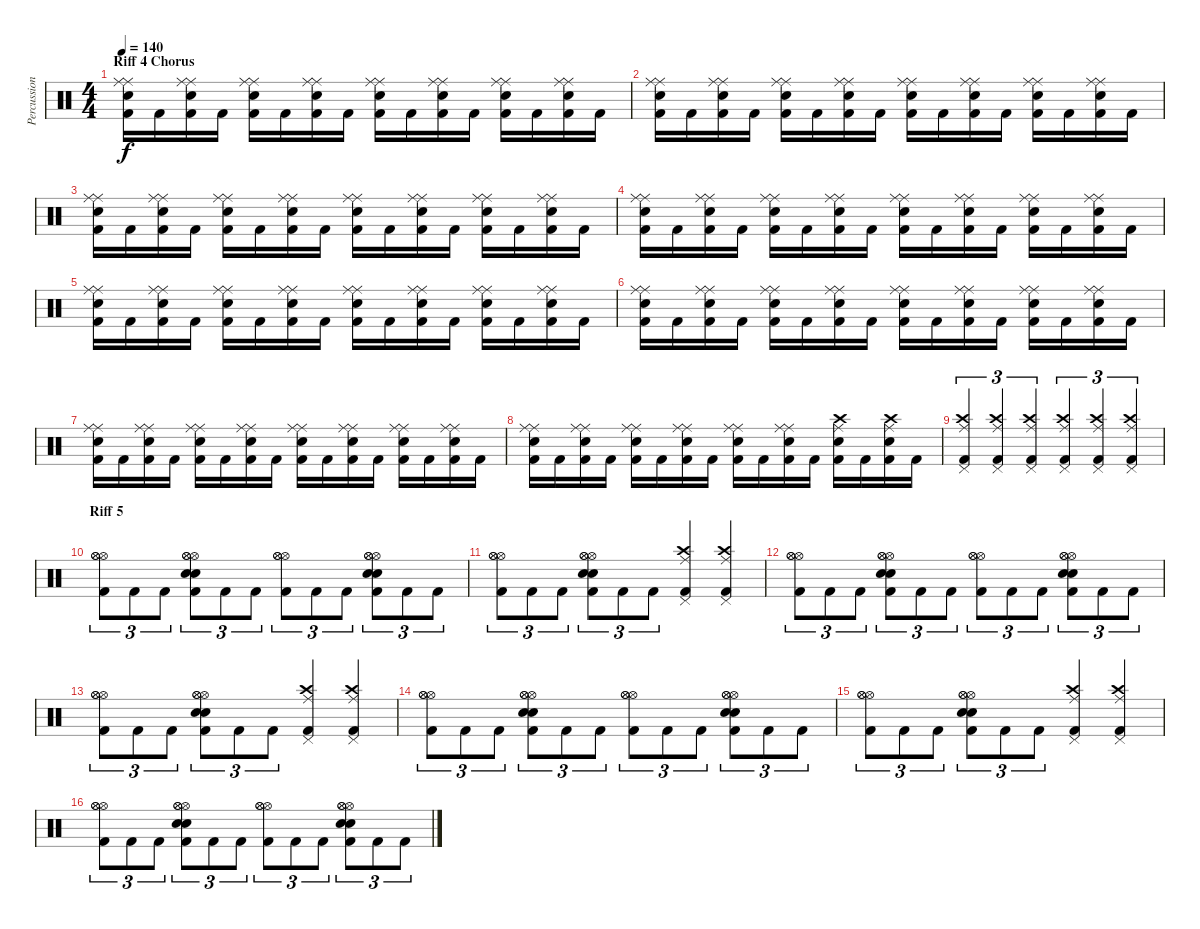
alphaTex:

\track ("Percussion" "Percussion") {instrument percussion}
\staff {score}
\articulation defaults
\ts (4 4)
\section ("" "Riff 4 Chorus")
\tempo 140
\clef neutral
\ks c
("Ride (middle)" "Ride (middle)" "Electric Snare (hit)" "Kick (hit) 2").16{dy f} "Kick (hit) 2".16 ("Ride (middle)" "Ride (middle)" "Electric Snare (hit)" "Kick (hit) 2").16 "Kick (hit) 2".16 ("Ride (middle)" "Ride (middle)" "Electric Snare (hit)" "Kick (hit) 2").16 "Kick (hit) 2".16 ("Ride (middle)" "Ride (middle)" "Electric Snare (hit)" "Kick (hit) 2").16 "Kick (hit) 2".16 ("Ride (middle)" "Ride (middle)" "Electric Snare (hit)" "Kick (hit) 2").16 "Kick (hit) 2".16 ("Ride (middle)" "Ride (middle)" "Electric Snare (hit)" "Kick (hit) 2").16 "Kick (hit) 2".16 ("Ride (middle)" "Ride (middle)" "Electric Snare (hit)" "Kick (hit) 2").16 "Kick (hit) 2".16 ("Ride (middle)" "Ride (middle)" "Electric Snare (hit)" "Kick (hit) 2").16 "Kick (hit) 2".16 |
("Ride (middle)" "Ride (middle)" "Electric Snare (hit)" "Kick (hit) 2").16 "Kick (hit) 2".16 ("Ride (middle)" "Ride (middle)" "Electric Snare (hit)" "Kick (hit) 2").16 "Kick (hit) 2".16 ("Ride (middle)" "Ride (middle)" "Electric Snare (hit)" "Kick (hit) 2").16 "Kick (hit) 2".16 ("Ride (middle)" "Ride (middle)" "Electric Snare (hit)" "Kick (hit) 2").16 "Kick (hit) 2".16 ("Ride (middle)" "Ride (middle)" "Electric Snare (hit)" "Kick (hit) 2").16 "Kick (hit) 2".16 ("Ride (middle)" "Ride (middle)" "Electric Snare (hit)" "Kick (hit) 2").16 "Kick (hit) 2".16 ("Ride (middle)" "Ride (middle)" "Electric Snare (hit)" "Kick (hit) 2").16 "Kick (hit) 2".16 ("Ride (middle)" "Ride (middle)" "Electric Snare (hit)" "Kick (hit) 2").16 "Kick (hit) 2".16 |
("Ride (middle)" "Ride (middle)" "Electric Snare (hit)" "Kick (hit) 2").16 "Kick (hit) 2".16 ("Ride (middle)" "Ride (middle)" "Electric Snare (hit)" "Kick (hit) 2").16 "Kick (hit) 2".16 ("Ride (middle)" "Ride (middle)" "Electric Snare (hit)" "Kick (hit) 2").16 "Kick (hit) 2".16 ("Ride (middle)" "Ride (middle)" "Electric Snare (hit)" "Kick (hit) 2").16 "Kick (hit) 2".16 ("Ride (middle)" "Ride (middle)" "Electric Snare (hit)" "Kick (hit) 2").16 "Kick (hit) 2".16 ("Ride (middle)" "Ride (middle)" "Electric Snare (hit)" "Kick (hit) 2").16 "Kick (hit) 2".16 ("Ride (middle)" "Ride (middle)" "Electric Snare (hit)" "Kick (hit) 2").16 "Kick (hit) 2".16 ("Ride (middle)" "Ride (middle)" "Electric Snare (hit)" "Kick (hit) 2").16 "Kick (hit) 2".16 |
("Ride (middle)" "Ride (middle)" "Electric Snare (hit)" "Kick (hit) 2").16 "Kick (hit) 2".16 ("Ride (middle)" "Ride (middle)" "Electric Snare (hit)" "Kick (hit) 2").16 "Kick (hit) 2".16 ("Ride (middle)" "Ride (middle)" "Electric Snare (hit)" "Kick (hit) 2").16 "Kick (hit) 2".16 ("Ride (middle)" "Ride (middle)" "Electric Snare (hit)" "Kick (hit) 2").16 "Kick (hit) 2".16 ("Ride (middle)" "Ride (middle)" "Electric Snare (hit)" "Kick (hit) 2").16 "Kick (hit) 2".16 ("Ride (middle)" "Ride (middle)" "Electric Snare (hit)" "Kick (hit) 2").16 "Kick (hit) 2".16 ("Ride (middle)" "Ride (middle)" "Electric Snare (hit)" "Kick (hit) 2").16 "Kick (hit) 2".16 ("Ride (middle)" "Ride (middle)" "Electric Snare (hit)" "Kick (hit) 2").16 "Kick (hit) 2".16 |
("Ride (middle)" "Ride (middle)" "Electric Snare (hit)" "Kick (hit) 2").16 "Kick (hit) 2".16 ("Ride (middle)" "Ride (middle)" "Electric Snare (hit)" "Kick (hit) 2").16 "Kick (hit) 2".16 ("Ride (middle)" "Ride (middle)" "Electric Snare (hit)" "Kick (hit) 2").16 "Kick (hit) 2".16 ("Ride (middle)" "Ride (middle)" "Electric Snare (hit)" "Kick (hit) 2").16 "Kick (hit) 2".16 ("Ride (middle)" "Ride (middle)" "Electric Snare (hit)" "Kick (hit) 2").16 "Kick (hit) 2".16 ("Ride (middle)" "Ride (middle)" "Electric Snare (hit)" "Kick (hit) 2").16 "Kick (hit) 2".16 ("Ride (middle)" "Ride (middle)" "Electric Snare (hit)" "Kick (hit) 2").16 "Kick (hit) 2".16 ("Ride (middle)" "Ride (middle)" "Electric Snare (hit)" "Kick (hit) 2").16 "Kick (hit) 2".16 |
("Ride (middle)" "Ride (middle)" "Electric Snare (hit)" "Kick (hit) 2").16 "Kick (hit) 2".16 ("Ride (middle)" "Ride (middle)" "Electric Snare (hit)" "Kick (hit) 2").16 "Kick (hit) 2".16 ("Ride (middle)" "Ride (middle)" "Electric Snare (hit)" "Kick (hit) 2").16 "Kick (hit) 2".16 ("Ride (middle)" "Ride (middle)" "Electric Snare (hit)" "Kick (hit) 2").16 "Kick (hit) 2".16 ("Ride (middle)" "Ride (middle)" "Electric Snare (hit)" "Kick (hit) 2").16 "Kick (hit) 2".16 ("Ride (middle)" "Ride (middle)" "Electric Snare (hit)" "Kick (hit) 2").16 "Kick (hit) 2".16 ("Ride (middle)" "Ride (middle)" "Electric Snare (hit)" "Kick (hit) 2").16 "Kick (hit) 2".16 ("Ride (middle)" "Ride (middle)" "Electric Snare (hit)" "Kick (hit) 2").16 "Kick (hit) 2".16 |
("Ride (middle)" "Ride (middle)" "Electric Snare (hit)" "Kick (hit) 2").16 "Kick (hit) 2".16 ("Ride (middle)" "Ride (middle)" "Electric Snare (hit)" "Kick (hit) 2").16 "Kick (hit) 2".16 ("Ride (middle)" "Ride (middle)" "Electric Snare (hit)" "Kick (hit) 2").16 "Kick (hit) 2".16 ("Ride (middle)" "Ride (middle)" "Electric Snare (hit)" "Kick (hit) 2").16 "Kick (hit) 2".16 ("Ride (middle)" "Ride (middle)" "Electric Snare (hit)" "Kick (hit) 2").16 "Kick (hit) 2".16 ("Ride (middle)" "Ride (middle)" "Electric Snare (hit)" "Kick (hit) 2").16 "Kick (hit) 2".16 ("Ride (middle)" "Ride (middle)" "Electric Snare (hit)" "Kick (hit) 2").16 "Kick (hit) 2".16 ("Ride (middle)" "Ride (middle)" "Electric Snare (hit)" "Kick (hit) 2").16 "Kick (hit) 2".16 |
("Ride (middle)" "Ride (middle)" "Electric Snare (hit)" "Kick (hit) 2").16 "Kick (hit) 2".16 ("Ride (middle)" "Ride (middle)" "Electric Snare (hit)" "Kick (hit) 2").16 "Kick (hit) 2".16 ("Ride (middle)" "Ride (middle)" "Electric Snare (hit)" "Kick (hit) 2").16 "Kick (hit) 2".16 ("Ride (middle)" "Ride (middle)" "Electric Snare (hit)" "Kick (hit) 2").16 "Kick (hit) 2".16 ("Ride (middle)" "Ride (middle)" "Electric Snare (hit)" "Kick (hit) 2").16 "Kick (hit) 2".16 ("Ride (middle)" "Ride (middle)" "Electric Snare (hit)" "Kick (hit) 2").16 "Kick (hit) 2".16 ("Ride (middle)" "Crash high (hit)" "Electric Snare (hit)" "Kick (hit) 2").16 "Kick (hit) 2".16 ("Ride (middle)" "Crash high (hit)" "Electric Snare (hit)" "Kick (hit) 2").16 "Kick (hit) 2".16 |
("Pedal Hi-Hat (hit)" "Crash high (hit)" "Ride (middle)" "Kick (hit) 2").4{tu (3 2)} ("Pedal Hi-Hat (hit)" "Crash high (hit)" "Ride (middle)" "Kick (hit) 2").4{tu (3 2)} ("Pedal Hi-Hat (hit)" "Crash high (hit)" "Ride (middle)" "Kick (hit) 2").4{tu (3 2)} ("Pedal Hi-Hat (hit)" "Crash high (hit)" "Ride (middle)" "Kick (hit) 2").4{tu (3 2)} ("Pedal Hi-Hat (hit)" "Crash high (hit)" "Ride (middle)" "Kick (hit) 2").4{tu (3 2)} ("Pedal Hi-Hat (hit)" "Crash high (hit)" "Ride (middle)" "Kick (hit) 2").4{tu (3 2)} |
\section ("" "Riff 5")
("Hi-Hat (open)" "Hi-Hat (open)" "Hi-Hat (open)" "Kick (hit) 2").8{tu (3 2)} "Kick (hit) 2".8{tu (3 2)} "Kick (hit) 2".8{tu (3 2)} ("Hi-Hat (open)" "Hi-Hat (open)" "Hi-Hat (open)" "Electric Snare (hit)" "Electric Snare (hit)" "Kick (hit) 2").8{tu (3 2)} "Kick (hit) 2".8{tu (3 2)} "Kick (hit) 2".8{tu (3 2)} ("Hi-Hat (open)" "Hi-Hat (open)" "Hi-Hat (open)" "Kick (hit) 2").8{tu (3 2)} "Kick (hit) 2".8{tu (3 2)} "Kick (hit) 2".8{tu (3 2)} ("Hi-Hat (open)" "Hi-Hat (open)" "Hi-Hat (open)" "Electric Snare (hit)" "Electric Snare (hit)" "Kick (hit) 2").8{tu (3 2)} "Kick (hit) 2".8{tu (3 2)} "Kick (hit) 2".8{tu (3 2)} |
("Hi-Hat (open)" "Hi-Hat (open)" "Hi-Hat (open)" "Kick (hit) 2").8{tu (3 2)} "Kick (hit) 2".8{tu (3 2)} "Kick (hit) 2".8{tu (3 2)} ("Hi-Hat (open)" "Hi-Hat (open)" "Hi-Hat (open)" "Electric Snare (hit)" "Electric Snare (hit)" "Kick (hit) 2").8{tu (3 2)} "Kick (hit) 2".8{tu (3 2)} "Kick (hit) 2".8{tu (3 2)} ("Ride (middle)" "Crash high (hit)" "Pedal Hi-Hat (hit)" "Kick (hit) 2").4 ("Ride (middle)" "Crash high (hit)" "Pedal Hi-Hat (hit)" "Kick (hit) 2").4 |
("Hi-Hat (open)" "Hi-Hat (open)" "Hi-Hat (open)" "Kick (hit) 2").8{tu (3 2)} "Kick (hit) 2".8{tu (3 2)} "Kick (hit) 2".8{tu (3 2)} ("Hi-Hat (open)" "Hi-Hat (open)" "Hi-Hat (open)" "Electric Snare (hit)" "Electric Snare (hit)" "Kick (hit) 2").8{tu (3 2)} "Kick (hit) 2".8{tu (3 2)} "Kick (hit) 2".8{tu (3 2)} ("Hi-Hat (open)" "Hi-Hat (open)" "Hi-Hat (open)" "Kick (hit) 2").8{tu (3 2)} "Kick (hit) 2".8{tu (3 2)} "Kick (hit) 2".8{tu (3 2)} ("Hi-Hat (open)" "Hi-Hat (open)" "Hi-Hat (open)" "Electric Snare (hit)" "Electric Snare (hit)" "Kick (hit) 2").8{tu (3 2)} "Kick (hit) 2".8{tu (3 2)} "Kick (hit) 2".8{tu (3 2)} |
("Hi-Hat (open)" "Hi-Hat (open)" "Hi-Hat (open)" "Kick (hit) 2").8{tu (3 2)} "Kick (hit) 2".8{tu (3 2)} "Kick (hit) 2".8{tu (3 2)} ("Hi-Hat (open)" "Hi-Hat (open)" "Hi-Hat (open)" "Electric Snare (hit)" "Electric Snare (hit)" "Kick (hit) 2").8{tu (3 2)} "Kick (hit) 2".8{tu (3 2)} "Kick (hit) 2".8{tu (3 2)} ("Ride (middle)" "Crash high (hit)" "Pedal Hi-Hat (hit)" "Kick (hit) 2").4 ("Ride (middle)" "Crash high (hit)" "Pedal Hi-Hat (hit)" "Kick (hit) 2").4 |
("Hi-Hat (open)" "Hi-Hat (open)" "Hi-Hat (open)" "Kick (hit) 2").8{tu (3 2)} "Kick (hit) 2".8{tu (3 2)} "Kick (hit) 2".8{tu (3 2)} ("Hi-Hat (open)" "Hi-Hat (open)" "Hi-Hat (open)" "Electric Snare (hit)" "Electric Snare (hit)" "Kick (hit) 2").8{tu (3 2)} "Kick (hit) 2".8{tu (3 2)} "Kick (hit) 2".8{tu (3 2)} ("Hi-Hat (open)" "Hi-Hat (open)" "Hi-Hat (open)" "Kick (hit) 2").8{tu (3 2)} "Kick (hit) 2".8{tu (3 2)} "Kick (hit) 2".8{tu (3 2)} ("Hi-Hat (open)" "Hi-Hat (open)" "Hi-Hat (open)" "Electric Snare (hit)" "Electric Snare (hit)" "Kick (hit) 2").8{tu (3 2)} "Kick (hit) 2".8{tu (3 2)} "Kick (hit) 2".8{tu (3 2)} |
("Hi-Hat (open)" "Hi-Hat (open)" "Hi-Hat (open)" "Kick (hit) 2").8{tu (3 2)} "Kick (hit) 2".8{tu (3 2)} "Kick (hit) 2".8{tu (3 2)} ("Hi-Hat (open)" "Hi-Hat (open)" "Hi-Hat (open)" "Electric Snare (hit)" "Electric Snare (hit)" "Kick (hit) 2").8{tu (3 2)} "Kick (hit) 2".8{tu (3 2)} "Kick (hit) 2".8{tu (3 2)} ("Ride (middle)" "Crash high (hit)" "Pedal Hi-Hat (hit)" "Kick (hit) 2").4 ("Ride (middle)" "Crash high (hit)" "Pedal Hi-Hat (hit)" "Kick (hit) 2").4 |
("Hi-Hat (open)" "Hi-Hat (open)" "Hi-Hat (open)" "Kick (hit) 2").8{tu (3 2)} "Kick (hit) 2".8{tu (3 2)} "Kick (hit) 2".8{tu (3 2)} ("Hi-Hat (open)" "Hi-Hat (open)" "Hi-Hat (open)" "Electric Snare (hit)" "Electric Snare (hit)" "Kick (hit) 2").8{tu (3 2)} "Kick (hit) 2".8{tu (3 2)} "Kick (hit) 2".8{tu (3 2)} ("Hi-Hat (open)" "Hi-Hat (open)" "Hi-Hat (open)" "Kick (hit) 2").8{tu (3 2)} "Kick (hit) 2".8{tu (3 2)} "Kick (hit) 2".8{tu (3 2)} ("Hi-Hat (open)" "Hi-Hat (open)" "Hi-Hat (open)" "Electric Snare (hit)" "Electric Snare (hit)" "Kick (hit) 2").8{tu (3 2)} "Kick (hit) 2".8{tu (3 2)} "Kick (hit) 2".8{tu (3 2)}
